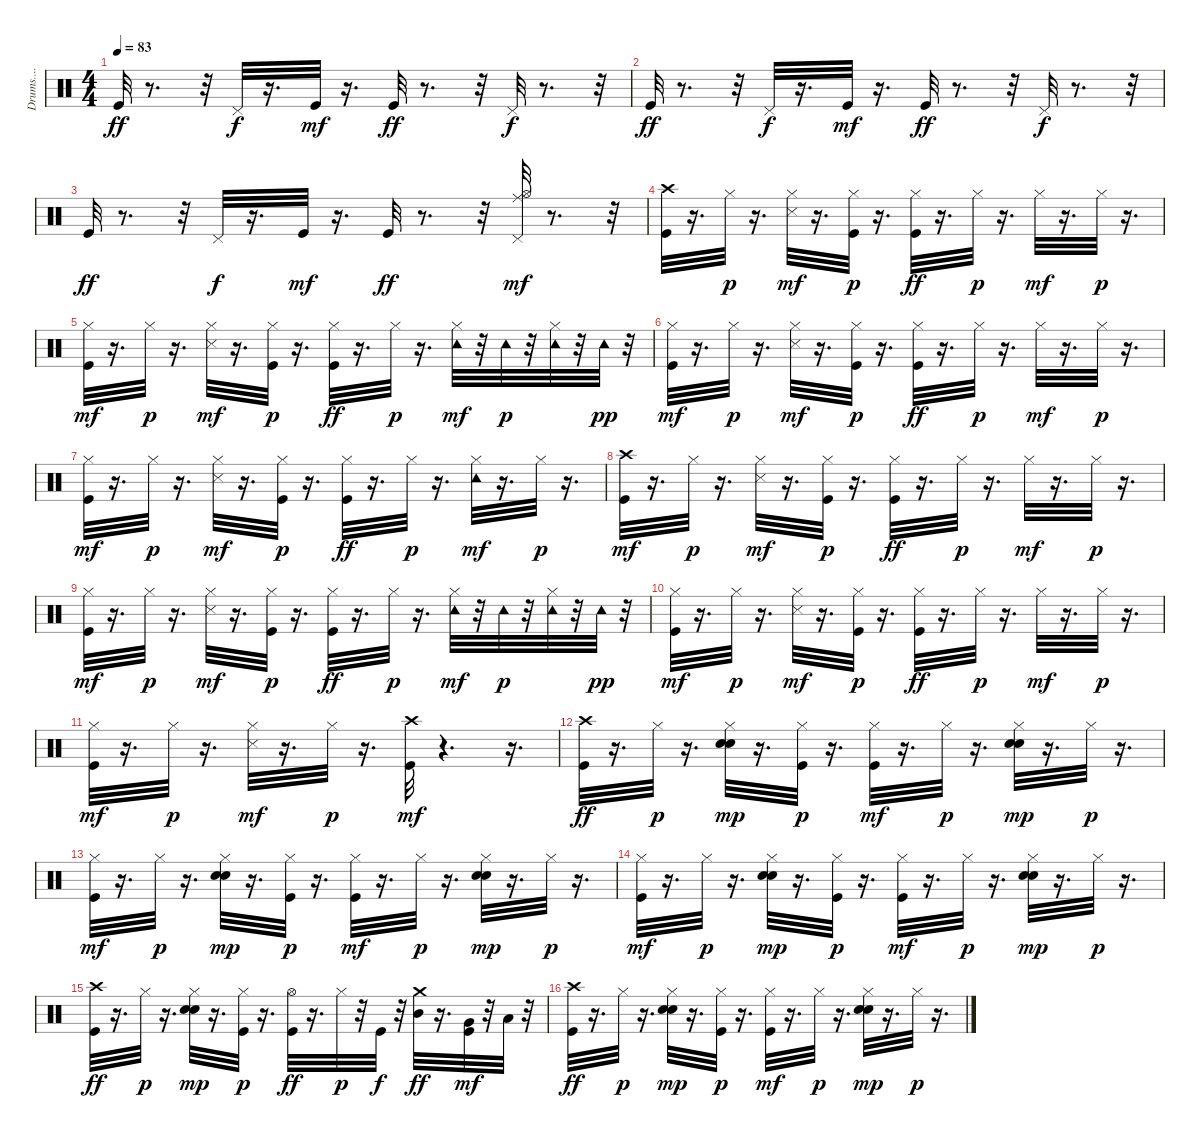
\track ("Drums....           " "Drums.... ") {instrument percussion}
\staff {score}
\articulation defaults
\ts (4 4)
\tempo 83
\clef neutral
\ks c "Kick (hit)".32{dy ff}
r.8{d} r.32 "Pedal Hi-Hat (hit)".32{dy f} r.16{d} "Kick (hit)".32{dy mf} r.16{d} "Kick (hit)".32{dy ff} r.8{d} r.32 "Pedal Hi-Hat (hit)".32{dy f} r.8{d} r.32 |
"Kick (hit)".32{dy ff} r.8{d} r.32 "Pedal Hi-Hat (hit)".32{dy f} r.16{d} "Kick (hit)".32{dy mf} r.16{d} "Kick (hit)".32{dy ff} r.8{d} r.32 "Pedal Hi-Hat (hit)".32{dy f} r.8{d} r.32 |
"Kick (hit)".32{dy ff} r.8{d} r.32 "Pedal Hi-Hat (hit)".32{dy f} r.16{d} "Kick (hit)".32{dy mf} r.16{d} "Kick (hit)".32{dy ff} r.8{d} r.32 ("Pedal Hi-Hat (hit)" "Hi-Hat (open)" "Ride (middle)").32{dy mf} r.8{d} r.32 |
("Kick (hit)" "Crash high (hit)").32 r.16{d} "Hi-Hat (closed)".32{dy p} r.16{d} ("Hi-Hat (closed)" "Snare (side stick) 3").32{dy mf} r.16{d} ("Kick (hit)" "Hi-Hat (closed)").32{dy p} r.16{d} ("Kick (hit)" "Hi-Hat (closed)").32{dy ff} r.16{d} "Hi-Hat (closed)".32{dy p} r.16{d} "Hi-Hat (closed)".32{dy mf} r.16{d} "Hi-Hat (closed)".32{dy p} r.16{d} |
("Kick (hit)" "Hi-Hat (closed)").32{dy mf} r.16{d} "Hi-Hat (closed)".32{dy p} r.16{d} ("Hi-Hat (closed)" "Snare (side stick) 3").32{dy mf} r.16{d} ("Kick (hit)" "Hi-Hat (closed)").32{dy p} r.16{d} ("Kick (hit)" "Hi-Hat (closed)").32{dy ff} r.16{d} "Hi-Hat (closed)".32{dy p} r.16{d} ("Tambourine (hit)" "Hi-Hat (closed)").32{dy mf} r.32 "Tambourine (hit)".32{dy p} r.32 ("Tambourine (hit)" "Hi-Hat (closed)").32 r.32 "Tambourine (hit)".32{dy pp} r.32 |
("Kick (hit)" "Hi-Hat (closed)").32{dy mf} r.16{d} "Hi-Hat (closed)".32{dy p} r.16{d} ("Hi-Hat (closed)" "Snare (side stick) 3").32{dy mf} r.16{d} ("Kick (hit)" "Hi-Hat (closed)").32{dy p} r.16{d} ("Kick (hit)" "Hi-Hat (closed)").32{dy ff} r.16{d} "Hi-Hat (closed)".32{dy p} r.16{d} "Hi-Hat (closed)".32{dy mf} r.16{d} "Hi-Hat (closed)".32{dy p} r.16{d} |
("Kick (hit)" "Hi-Hat (closed)").32{dy mf} r.16{d} "Hi-Hat (closed)".32{dy p} r.16{d} ("Hi-Hat (closed)" "Snare (side stick) 3").32{dy mf} r.16{d} ("Kick (hit)" "Hi-Hat (closed)").32{dy p} r.16{d} ("Kick (hit)" "Hi-Hat (closed)").32{dy ff} r.16{d} "Hi-Hat (closed)".32{dy p} r.16{d} ("Tambourine (hit)" "Hi-Hat (closed)").32{dy mf} r.16{d} "Hi-Hat (closed)".32{dy p} r.16{d} |
("Kick (hit)" "Crash high (hit)").32{dy mf} r.16{d} "Hi-Hat (closed)".32{dy p} r.16{d} ("Hi-Hat (closed)" "Snare (side stick) 3").32{dy mf} r.16{d} ("Kick (hit)" "Hi-Hat (closed)").32{dy p} r.16{d} ("Kick (hit)" "Hi-Hat (closed)").32{dy ff} r.16{d} "Hi-Hat (closed)".32{dy p} r.16{d} "Hi-Hat (closed)".32{dy mf} r.16{d} "Hi-Hat (closed)".32{dy p} r.16{d} |
("Kick (hit)" "Hi-Hat (closed)").32{dy mf} r.16{d} "Hi-Hat (closed)".32{dy p} r.16{d} ("Hi-Hat (closed)" "Snare (side stick) 3").32{dy mf} r.16{d} ("Kick (hit)" "Hi-Hat (closed)").32{dy p} r.16{d} ("Kick (hit)" "Hi-Hat (closed)").32{dy ff} r.16{d} "Hi-Hat (closed)".32{dy p} r.16{d} ("Tambourine (hit)" "Hi-Hat (closed)").32{dy mf} r.32 "Tambourine (hit)".32{dy p} r.32 ("Tambourine (hit)" "Hi-Hat (closed)").32 r.32 "Tambourine (hit)".32{dy pp} r.32 |
("Kick (hit)" "Hi-Hat (closed)").32{dy mf} r.16{d} "Hi-Hat (closed)".32{dy p} r.16{d} ("Hi-Hat (closed)" "Snare (side stick) 3").32{dy mf} r.16{d} ("Kick (hit)" "Hi-Hat (closed)").32{dy p} r.16{d} ("Kick (hit)" "Hi-Hat (closed)").32{dy ff} r.16{d} "Hi-Hat (closed)".32{dy p} r.16{d} "Hi-Hat (closed)".32{dy mf} r.16{d} "Hi-Hat (closed)".32{dy p} r.16{d} |
("Kick (hit)" "Hi-Hat (closed)").32{dy mf} r.16{d} "Hi-Hat (closed)".32{dy p} r.16{d} ("Hi-Hat (closed)" "Snare (side stick) 3").32{dy mf} r.16{d} "Hi-Hat (closed)".32{dy p} r.16{d} ("Kick (hit)" "Crash high (hit)").32{dy mf} r.4{d} r.16{d} |
("Kick (hit)" "Crash high (hit)").32{dy ff} r.16{d} "Hi-Hat (closed)".32{dy p} r.16{d} ("Snare (hit) 2" "Hi-Hat (closed)" "Electric Snare (hit)").32{dy mp} r.16{d} ("Kick (hit)" "Hi-Hat (closed)").32{dy p} r.16{d} ("Kick (hit)" "Hi-Hat (closed)").32{dy mf} r.16{d} "Hi-Hat (closed)".32{dy p} r.16{d} ("Snare (hit) 2" "Hi-Hat (closed)" "Electric Snare (hit)").32{dy mp} r.16{d} "Hi-Hat (closed)".32{dy p} r.16{d} |
("Kick (hit)" "Hi-Hat (closed)").32{dy mf} r.16{d} "Hi-Hat (closed)".32{dy p} r.16{d} ("Snare (hit) 2" "Hi-Hat (closed)" "Electric Snare (hit)").32{dy mp} r.16{d} ("Kick (hit)" "Hi-Hat (closed)").32{dy p} r.16{d} ("Kick (hit)" "Hi-Hat (closed)").32{dy mf} r.16{d} "Hi-Hat (closed)".32{dy p} r.16{d} ("Snare (hit) 2" "Hi-Hat (closed)" "Electric Snare (hit)").32{dy mp} r.16{d} "Hi-Hat (closed)".32{dy p} r.16{d} |
("Kick (hit)" "Hi-Hat (closed)").32{dy mf} r.16{d} "Hi-Hat (closed)".32{dy p} r.16{d} ("Snare (hit) 2" "Hi-Hat (closed)" "Electric Snare (hit)").32{dy mp} r.16{d} ("Kick (hit)" "Hi-Hat (closed)").32{dy p} r.16{d} ("Kick (hit)" "Hi-Hat (closed)").32{dy mf} r.16{d} "Hi-Hat (closed)".32{dy p} r.16{d} ("Snare (hit) 2" "Hi-Hat (closed)" "Electric Snare (hit)").32{dy mp} r.16{d} "Hi-Hat (closed)".32{dy p} r.16{d} |
("Kick (hit)" "Crash high (hit)").32{dy ff} r.16{d} "Hi-Hat (closed)".32{dy p} r.16{d} ("Snare (hit) 2" "Hi-Hat (closed)" "Electric Snare (hit)").32{dy mp} r.16{d} ("Kick (hit)" "Hi-Hat (closed)").32{dy p} r.16{d} ("Kick (hit)" "Hi-Hat (open)").32{dy ff} r.16{d} "Hi-Hat (closed)".32{dy p} r.32 "Kick (hit)".32{dy f} r.32 ("Crash medium (hit)" "Mid Tom (hit)").32{dy ff} r.16{d} ("Kick (hit)" "Very Low Tom (hit)").32{dy mf} r.32 "Low Floor Tom (hit)".32 r.32 |
("Kick (hit)" "Crash high (hit)").32{dy ff} r.16{d} "Hi-Hat (closed)".32{dy p} r.16{d} ("Snare (hit) 2" "Hi-Hat (closed)" "Electric Snare (hit)").32{dy mp} r.16{d} ("Kick (hit)" "Hi-Hat (closed)").32{dy p} r.16{d} ("Kick (hit)" "Hi-Hat (closed)").32{dy mf} r.16{d} "Hi-Hat (closed)".32{dy p} r.16{d} ("Snare (hit) 2" "Hi-Hat (closed)" "Electric Snare (hit)").32{dy mp} r.16{d} "Hi-Hat (closed)".32{dy p} r.16{d}
